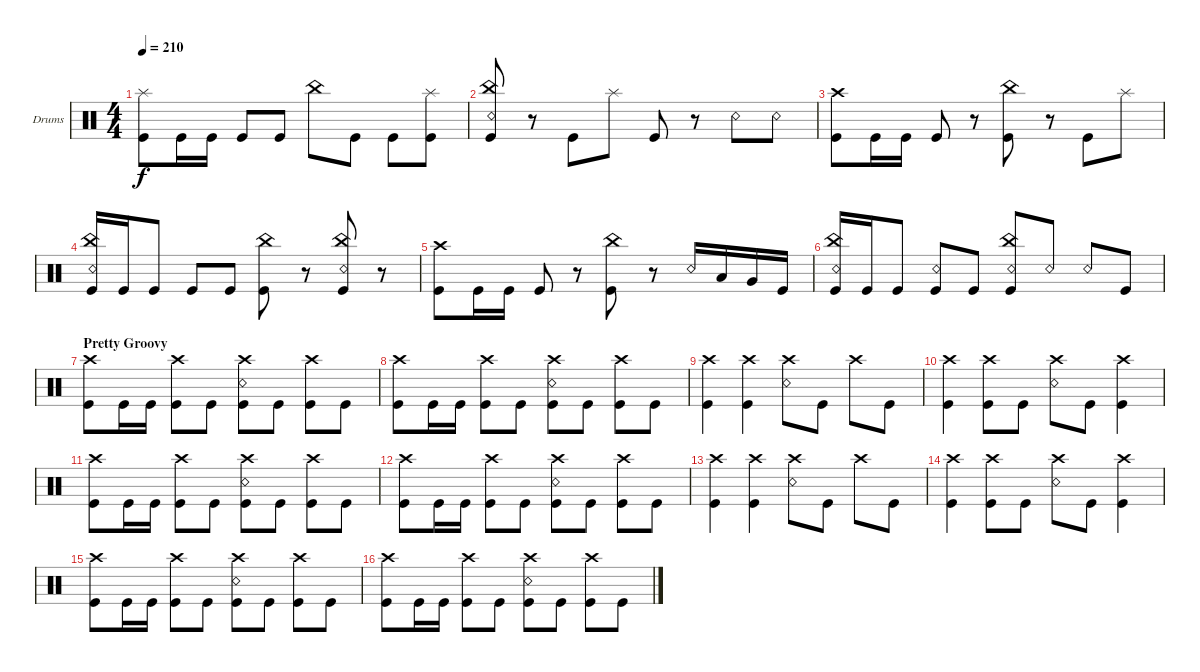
\defaultSystemsLayout 4
\bracketExtendMode groupsimilarinstruments
\firstSystemTrackNameOrientation horizontal
\otherSystemsTrackNameOrientation horizontal
\track ("Drums" "Drums") {instrument percussion}
\staff {score}
\articulation defaults
\ts (4 4)
\tempo 210
\clef neutral
\ks c
("Kick (hit)" "Splash (hit)").8{dy f} "Kick (hit)".16 "Kick (hit)".16 "Kick (hit)".8 "Kick (hit)".8 "China (hit)".8 "Kick (hit)".8 "Kick (hit)".8 ("Splash (hit)" "Kick (hit)").8 |
("Kick (hit)" "China (hit)" "Snare (rim shot)").8 r.8 "Kick (hit)".8 "Splash (hit)".8 "Kick (hit)".8 r.8 "Snare (rim shot)".8 "Snare (rim shot)".8 |
("Kick (hit)" "Crash high (hit)").8 "Kick (hit)".16 "Kick (hit)".16 "Kick (hit)".8 r.8 ("Kick (hit)" "China (hit)").8 r.8 "Kick (hit)".8 "Splash (hit)".8 |
("Kick (hit)" "China (hit)" "Snare (rim shot)").16 "Kick (hit)".16 "Kick (hit)".8 "Kick (hit)".8 "Kick (hit)".8 ("Kick (hit)" "China (hit)").8 r.8 ("Kick (hit)" "Snare (rim shot)" "China (hit)").8 r.8 |
("Kick (hit)" "Crash high (hit)").8 "Kick (hit)".16 "Kick (hit)".16 "Kick (hit)".8 r.8 ("Kick (hit)" "China (hit)").8 r.8 "Snare (rim shot)".16 "Low Tom (hit)".16 "Very Low Tom (hit)".16 "Kick (hit)".16 |
("Kick (hit)" "China (hit)" "Snare (rim shot)").16 "Kick (hit)".16 "Kick (hit)".8 ("Kick (hit)" "Snare (rim shot)").8 "Kick (hit)".8 ("Kick (hit)" "China (hit)" "Snare (rim shot)").8 "Snare (rim shot)".8 "Snare (rim shot)".8 "Kick (hit)".8 |
\section ("" "Pretty Groovy")
("Crash high (hit)" "Kick (hit)").8 "Kick (hit)".16 "Kick (hit)".16 ("Crash high (hit)" "Kick (hit)").8 "Kick (hit)".8 ("Crash high (hit)" "Snare (rim shot)" "Kick (hit)").8 "Kick (hit)".8 ("Crash high (hit)" "Kick (hit)").8 "Kick (hit)".8 |
("Crash high (hit)" "Kick (hit)").8 "Kick (hit)".16 "Kick (hit)".16 ("Crash high (hit)" "Kick (hit)").8 "Kick (hit)".8 ("Crash high (hit)" "Snare (rim shot)" "Kick (hit)").8 "Kick (hit)".8 ("Crash high (hit)" "Kick (hit)").8 "Kick (hit)".8 |
("Crash high (hit)" "Kick (hit)").4 ("Crash high (hit)" "Kick (hit)").4 ("Crash high (hit)" "Snare (rim shot)").8 "Kick (hit)".8 "Crash high (hit)".8 "Kick (hit)".8 |
("Crash high (hit)" "Kick (hit)").4 ("Crash high (hit)" "Kick (hit)").8 "Kick (hit)".8 ("Crash high (hit)" "Snare (rim shot)").8 "Kick (hit)".8 ("Crash high (hit)" "Kick (hit)").4 |
("Crash high (hit)" "Kick (hit)").8 "Kick (hit)".16 "Kick (hit)".16 ("Crash high (hit)" "Kick (hit)").8 "Kick (hit)".8 ("Crash high (hit)" "Snare (rim shot)" "Kick (hit)").8 "Kick (hit)".8 ("Crash high (hit)" "Kick (hit)").8 "Kick (hit)".8 |
("Crash high (hit)" "Kick (hit)").8 "Kick (hit)".16 "Kick (hit)".16 ("Crash high (hit)" "Kick (hit)").8 "Kick (hit)".8 ("Crash high (hit)" "Snare (rim shot)" "Kick (hit)").8 "Kick (hit)".8 ("Crash high (hit)" "Kick (hit)").8 "Kick (hit)".8 |
("Crash high (hit)" "Kick (hit)").4 ("Crash high (hit)" "Kick (hit)").4 ("Crash high (hit)" "Snare (rim shot)").8 "Kick (hit)".8 "Crash high (hit)".8 "Kick (hit)".8 |
("Crash high (hit)" "Kick (hit)").4 ("Crash high (hit)" "Kick (hit)").8 "Kick (hit)".8 ("Crash high (hit)" "Snare (rim shot)").8 "Kick (hit)".8 ("Crash high (hit)" "Kick (hit)").4 |
("Crash high (hit)" "Kick (hit)").8 "Kick (hit)".16 "Kick (hit)".16 ("Crash high (hit)" "Kick (hit)").8 "Kick (hit)".8 ("Crash high (hit)" "Snare (rim shot)" "Kick (hit)").8 "Kick (hit)".8 ("Crash high (hit)" "Kick (hit)").8 "Kick (hit)".8 |
("Crash high (hit)" "Kick (hit)").8 "Kick (hit)".16 "Kick (hit)".16 ("Crash high (hit)" "Kick (hit)").8 "Kick (hit)".8 ("Crash high (hit)" "Snare (rim shot)" "Kick (hit)").8 "Kick (hit)".8 ("Crash high (hit)" "Kick (hit)").8 "Kick (hit)".8
